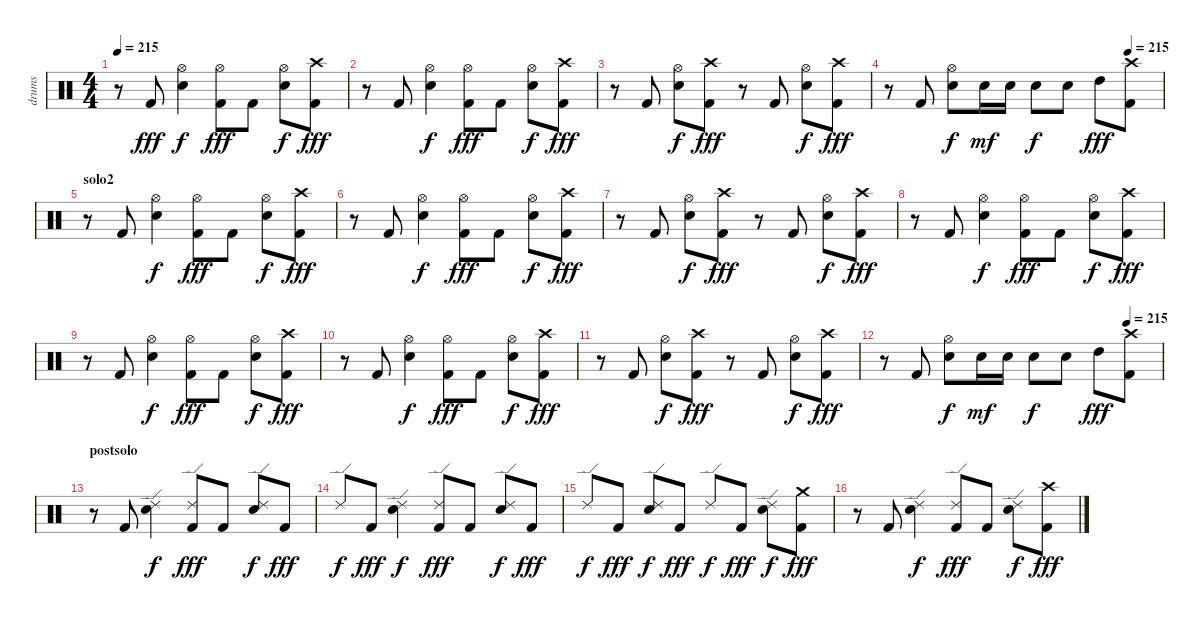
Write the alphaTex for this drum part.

\track ("drums" "drums") {instrument percussion}
\staff {score}
\articulation defaults
\ts (4 4)
\tempo 215
\clef neutral
\ks c
r.8{dy fff} "Kick (hit) 2".8 ("Hi-Hat (open)" "Snare (hit) 2").4{dy f} ("Hi-Hat (open)" "Kick (hit) 2").8{dy fff} "Kick (hit) 2".8 ("Hi-Hat (open)" "Snare (hit) 2").8{dy f} ("Crash high (hit)" "Kick (hit) 2").8{dy fff} |
r.8 "Kick (hit) 2".8 ("Hi-Hat (open)" "Snare (hit) 2").4{dy f} ("Hi-Hat (open)" "Kick (hit) 2").8{dy fff} "Kick (hit) 2".8 ("Hi-Hat (open)" "Snare (hit) 2").8{dy f} ("Crash high (hit)" "Kick (hit) 2").8{dy fff} |
r.8 "Kick (hit) 2".8 ("Hi-Hat (open)" "Snare (hit) 2").8{dy f} ("Crash high (hit)" "Kick (hit) 2").8{dy fff} r.8 "Kick (hit) 2".8 ("Hi-Hat (open)" "Snare (hit) 2").8{dy f} ("Crash high (hit)" "Kick (hit) 2").8{dy fff} |
\tempo (215 0.875)
r.8 "Kick (hit) 2".8 ("Hi-Hat (open)" "Snare (hit) 2").8{dy f} "Snare (hit) 2".16{dy mf} "Snare (hit) 2".16 "Snare (hit) 2".8{dy f} "Snare (hit) 2".8 "High Tom (hit)".8{dy fff} ("Crash high (hit)" "Kick (hit) 2").8 |
\section ("" "solo2")
r.8 "Kick (hit) 2".8 ("Hi-Hat (open)" "Snare (hit) 2").4{dy f} ("Hi-Hat (open)" "Kick (hit) 2").8{dy fff} "Kick (hit) 2".8 ("Hi-Hat (open)" "Snare (hit) 2").8{dy f} ("Crash high (hit)" "Kick (hit) 2").8{dy fff} |
r.8 "Kick (hit) 2".8 ("Hi-Hat (open)" "Snare (hit) 2").4{dy f} ("Hi-Hat (open)" "Kick (hit) 2").8{dy fff} "Kick (hit) 2".8 ("Hi-Hat (open)" "Snare (hit) 2").8{dy f} ("Crash high (hit)" "Kick (hit) 2").8{dy fff} |
r.8 "Kick (hit) 2".8 ("Hi-Hat (open)" "Snare (hit) 2").8{dy f} ("Crash high (hit)" "Kick (hit) 2").8{dy fff} r.8 "Kick (hit) 2".8 ("Hi-Hat (open)" "Snare (hit) 2").8{dy f} ("Crash high (hit)" "Kick (hit) 2").8{dy fff} |
r.8 "Kick (hit) 2".8 ("Hi-Hat (open)" "Snare (hit) 2").4{dy f} ("Hi-Hat (open)" "Kick (hit) 2").8{dy fff} "Kick (hit) 2".8 ("Hi-Hat (open)" "Snare (hit) 2").8{dy f} ("Crash high (hit)" "Kick (hit) 2").8{dy fff} |
r.8 "Kick (hit) 2".8 ("Hi-Hat (open)" "Snare (hit) 2").4{dy f} ("Hi-Hat (open)" "Kick (hit) 2").8{dy fff} "Kick (hit) 2".8 ("Hi-Hat (open)" "Snare (hit) 2").8{dy f} ("Crash high (hit)" "Kick (hit) 2").8{dy fff} |
r.8 "Kick (hit) 2".8 ("Hi-Hat (open)" "Snare (hit) 2").4{dy f} ("Hi-Hat (open)" "Kick (hit) 2").8{dy fff} "Kick (hit) 2".8 ("Hi-Hat (open)" "Snare (hit) 2").8{dy f} ("Crash high (hit)" "Kick (hit) 2").8{dy fff} |
r.8 "Kick (hit) 2".8 ("Hi-Hat (open)" "Snare (hit) 2").8{dy f} ("Crash high (hit)" "Kick (hit) 2").8{dy fff} r.8 "Kick (hit) 2".8 ("Hi-Hat (open)" "Snare (hit) 2").8{dy f} ("Crash high (hit)" "Kick (hit) 2").8{dy fff} |
\tempo (215 0.875)
r.8 "Kick (hit) 2".8 ("Hi-Hat (open)" "Snare (hit) 2").8{dy f} "Snare (hit) 2".16{dy mf} "Snare (hit) 2".16 "Snare (hit) 2".8{dy f} "Snare (hit) 2".8 "High Tom (hit)".8{dy fff} ("Crash high (hit)" "Kick (hit) 2").8 |
\section ("" "postsolo")
r.8 "Kick (hit) 2".8 ("Ride (edge) 2" "Snare (hit) 2").4{dy f} ("Ride (edge) 2" "Kick (hit) 2").8{dy fff} "Kick (hit) 2".8 ("Ride (edge) 2" "Snare (hit) 2").8{dy f} "Kick (hit) 2".8{dy fff} |
"Ride (edge) 2".8{dy f} "Kick (hit) 2".8{dy fff} ("Ride (edge) 2" "Snare (hit) 2").4{dy f} ("Ride (edge) 2" "Kick (hit) 2").8{dy fff} "Kick (hit) 2".8 ("Ride (edge) 2" "Snare (hit) 2").8{dy f} "Kick (hit) 2".8{dy fff} |
"Ride (edge) 2".8{dy f} "Kick (hit) 2".8{dy fff} ("Ride (edge) 2" "Snare (hit) 2").8{dy f} "Kick (hit) 2".8{dy fff} "Ride (edge) 2".8{dy f} "Kick (hit) 2".8{dy fff} ("Ride (edge) 2" "Snare (hit) 2").8{dy f} ("Crash medium (hit)" "Kick (hit) 2").8{dy fff} |
r.8 "Kick (hit) 2".8 ("Ride (edge) 2" "Snare (hit) 2").4{dy f} ("Ride (edge) 2" "Kick (hit) 2").8{dy fff} "Kick (hit) 2".8 ("Ride (edge) 2" "Snare (hit) 2").8{dy f} ("Crash high (hit)" "Kick (hit) 2").8{dy fff}
